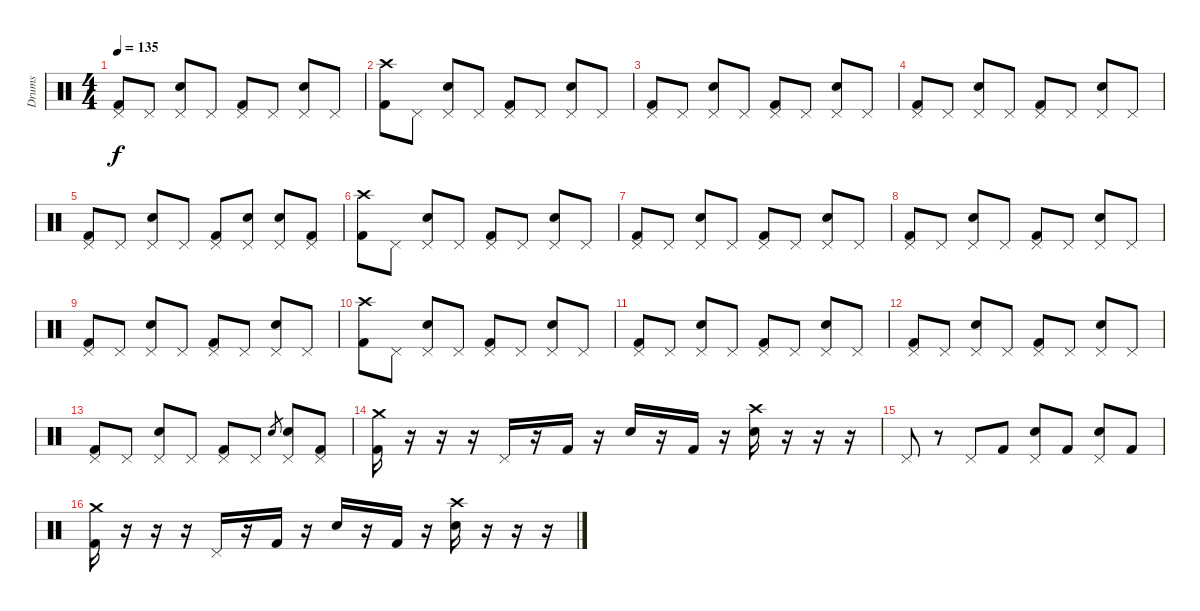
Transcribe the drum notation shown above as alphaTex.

\track ("Drums" "Drums") {instrument percussion}
\staff {score}
\articulation defaults
\ts (4 4)
\tempo 135
\clef neutral
\ks c
("Pedal Hi-Hat (hit)" "Kick (hit) 2").8{dy f} "Pedal Hi-Hat (hit)".8 ("Pedal Hi-Hat (hit)" "Snare (hit) 2").8 "Pedal Hi-Hat (hit)".8 ("Pedal Hi-Hat (hit)" "Kick (hit) 2").8 "Pedal Hi-Hat (hit)".8 ("Pedal Hi-Hat (hit)" "Snare (hit) 2").8 "Pedal Hi-Hat (hit)".8 |
("Crash high (hit)" "Kick (hit) 2").8 "Pedal Hi-Hat (hit)".8 ("Pedal Hi-Hat (hit)" "Snare (hit) 2").8 "Pedal Hi-Hat (hit)".8 ("Pedal Hi-Hat (hit)" "Kick (hit) 2").8 "Pedal Hi-Hat (hit)".8 ("Pedal Hi-Hat (hit)" "Snare (hit) 2").8 "Pedal Hi-Hat (hit)".8 |
("Pedal Hi-Hat (hit)" "Kick (hit) 2").8 "Pedal Hi-Hat (hit)".8 ("Pedal Hi-Hat (hit)" "Snare (hit) 2").8 "Pedal Hi-Hat (hit)".8 ("Pedal Hi-Hat (hit)" "Kick (hit) 2").8 "Pedal Hi-Hat (hit)".8 ("Pedal Hi-Hat (hit)" "Snare (hit) 2").8 "Pedal Hi-Hat (hit)".8 |
("Pedal Hi-Hat (hit)" "Kick (hit) 2").8 "Pedal Hi-Hat (hit)".8 ("Pedal Hi-Hat (hit)" "Snare (hit) 2").8 "Pedal Hi-Hat (hit)".8 ("Pedal Hi-Hat (hit)" "Kick (hit) 2").8 "Pedal Hi-Hat (hit)".8 ("Pedal Hi-Hat (hit)" "Snare (hit) 2").8 "Pedal Hi-Hat (hit)".8 |
("Pedal Hi-Hat (hit)" "Kick (hit) 2").8 "Pedal Hi-Hat (hit)".8 ("Pedal Hi-Hat (hit)" "Snare (hit) 2").8 "Pedal Hi-Hat (hit)".8 ("Pedal Hi-Hat (hit)" "Kick (hit) 2").8 ("Pedal Hi-Hat (hit)" "Snare (hit) 2").8 ("Pedal Hi-Hat (hit)" "Snare (hit) 2").8 ("Pedal Hi-Hat (hit)" "Kick (hit) 2").8 |
("Crash high (hit)" "Kick (hit) 2").8 "Pedal Hi-Hat (hit)".8 ("Pedal Hi-Hat (hit)" "Snare (hit) 2").8 "Pedal Hi-Hat (hit)".8 ("Pedal Hi-Hat (hit)" "Kick (hit) 2").8 "Pedal Hi-Hat (hit)".8 ("Pedal Hi-Hat (hit)" "Snare (hit) 2").8 "Pedal Hi-Hat (hit)".8 |
("Pedal Hi-Hat (hit)" "Kick (hit) 2").8 "Pedal Hi-Hat (hit)".8 ("Pedal Hi-Hat (hit)" "Snare (hit) 2").8 "Pedal Hi-Hat (hit)".8 ("Pedal Hi-Hat (hit)" "Kick (hit) 2").8 "Pedal Hi-Hat (hit)".8 ("Pedal Hi-Hat (hit)" "Snare (hit) 2").8 "Pedal Hi-Hat (hit)".8 |
("Pedal Hi-Hat (hit)" "Kick (hit) 2").8 "Pedal Hi-Hat (hit)".8 ("Pedal Hi-Hat (hit)" "Snare (hit) 2").8 "Pedal Hi-Hat (hit)".8 ("Pedal Hi-Hat (hit)" "Kick (hit) 2").8 "Pedal Hi-Hat (hit)".8 ("Pedal Hi-Hat (hit)" "Snare (hit) 2").8 "Pedal Hi-Hat (hit)".8 |
("Pedal Hi-Hat (hit)" "Kick (hit) 2").8 "Pedal Hi-Hat (hit)".8 ("Pedal Hi-Hat (hit)" "Snare (hit) 2").8 "Pedal Hi-Hat (hit)".8 ("Pedal Hi-Hat (hit)" "Kick (hit) 2").8 "Pedal Hi-Hat (hit)".8 ("Pedal Hi-Hat (hit)" "Snare (hit) 2").8 "Pedal Hi-Hat (hit)".8 |
("Crash high (hit)" "Kick (hit) 2").8 "Pedal Hi-Hat (hit)".8 ("Pedal Hi-Hat (hit)" "Snare (hit) 2").8 "Pedal Hi-Hat (hit)".8 ("Pedal Hi-Hat (hit)" "Kick (hit) 2").8 "Pedal Hi-Hat (hit)".8 ("Pedal Hi-Hat (hit)" "Snare (hit) 2").8 "Pedal Hi-Hat (hit)".8 |
("Pedal Hi-Hat (hit)" "Kick (hit) 2").8 "Pedal Hi-Hat (hit)".8 ("Pedal Hi-Hat (hit)" "Snare (hit) 2").8 "Pedal Hi-Hat (hit)".8 ("Pedal Hi-Hat (hit)" "Kick (hit) 2").8 "Pedal Hi-Hat (hit)".8 ("Pedal Hi-Hat (hit)" "Snare (hit) 2").8 "Pedal Hi-Hat (hit)".8 |
("Pedal Hi-Hat (hit)" "Kick (hit) 2").8 "Pedal Hi-Hat (hit)".8 ("Pedal Hi-Hat (hit)" "Snare (hit) 2").8 "Pedal Hi-Hat (hit)".8 ("Pedal Hi-Hat (hit)" "Kick (hit) 2").8 "Pedal Hi-Hat (hit)".8 ("Pedal Hi-Hat (hit)" "Snare (hit) 2").8 "Pedal Hi-Hat (hit)".8 |
("Pedal Hi-Hat (hit)" "Kick (hit) 2").8 "Pedal Hi-Hat (hit)".8 ("Pedal Hi-Hat (hit)" "Snare (hit) 2").8 "Pedal Hi-Hat (hit)".8 ("Pedal Hi-Hat (hit)" "Kick (hit) 2").8 "Pedal Hi-Hat (hit)".8 "Snare (hit) 2".8{gr} ("Pedal Hi-Hat (hit)" "Snare (hit) 2").8 ("Pedal Hi-Hat (hit)" "Kick (hit) 2").8 |
("Crash medium (hit)" "Kick (hit) 2").16 r.16 r.16 r.16 "Pedal Hi-Hat (hit)".16 r.16 "Kick (hit) 2".16 r.16 "Snare (hit) 2".16 r.16 "Kick (hit) 2".16 r.16 ("Crash high (hit)" "Snare (hit) 2").16 r.16 r.16 r.16 |
"Pedal Hi-Hat (hit)".8 r.8 "Pedal Hi-Hat (hit)".8 "Kick (hit) 2".8 ("Pedal Hi-Hat (hit)" "Snare (hit) 2").8 "Kick (hit) 2".8 ("Pedal Hi-Hat (hit)" "Snare (hit) 2").8 "Kick (hit) 2".8 |
("Crash medium (hit)" "Kick (hit) 2").16 r.16 r.16 r.16 "Pedal Hi-Hat (hit)".16 r.16 "Kick (hit) 2".16 r.16 "Snare (hit) 2".16 r.16 "Kick (hit) 2".16 r.16 ("Crash high (hit)" "Snare (hit) 2").16 r.16 r.16 r.16
